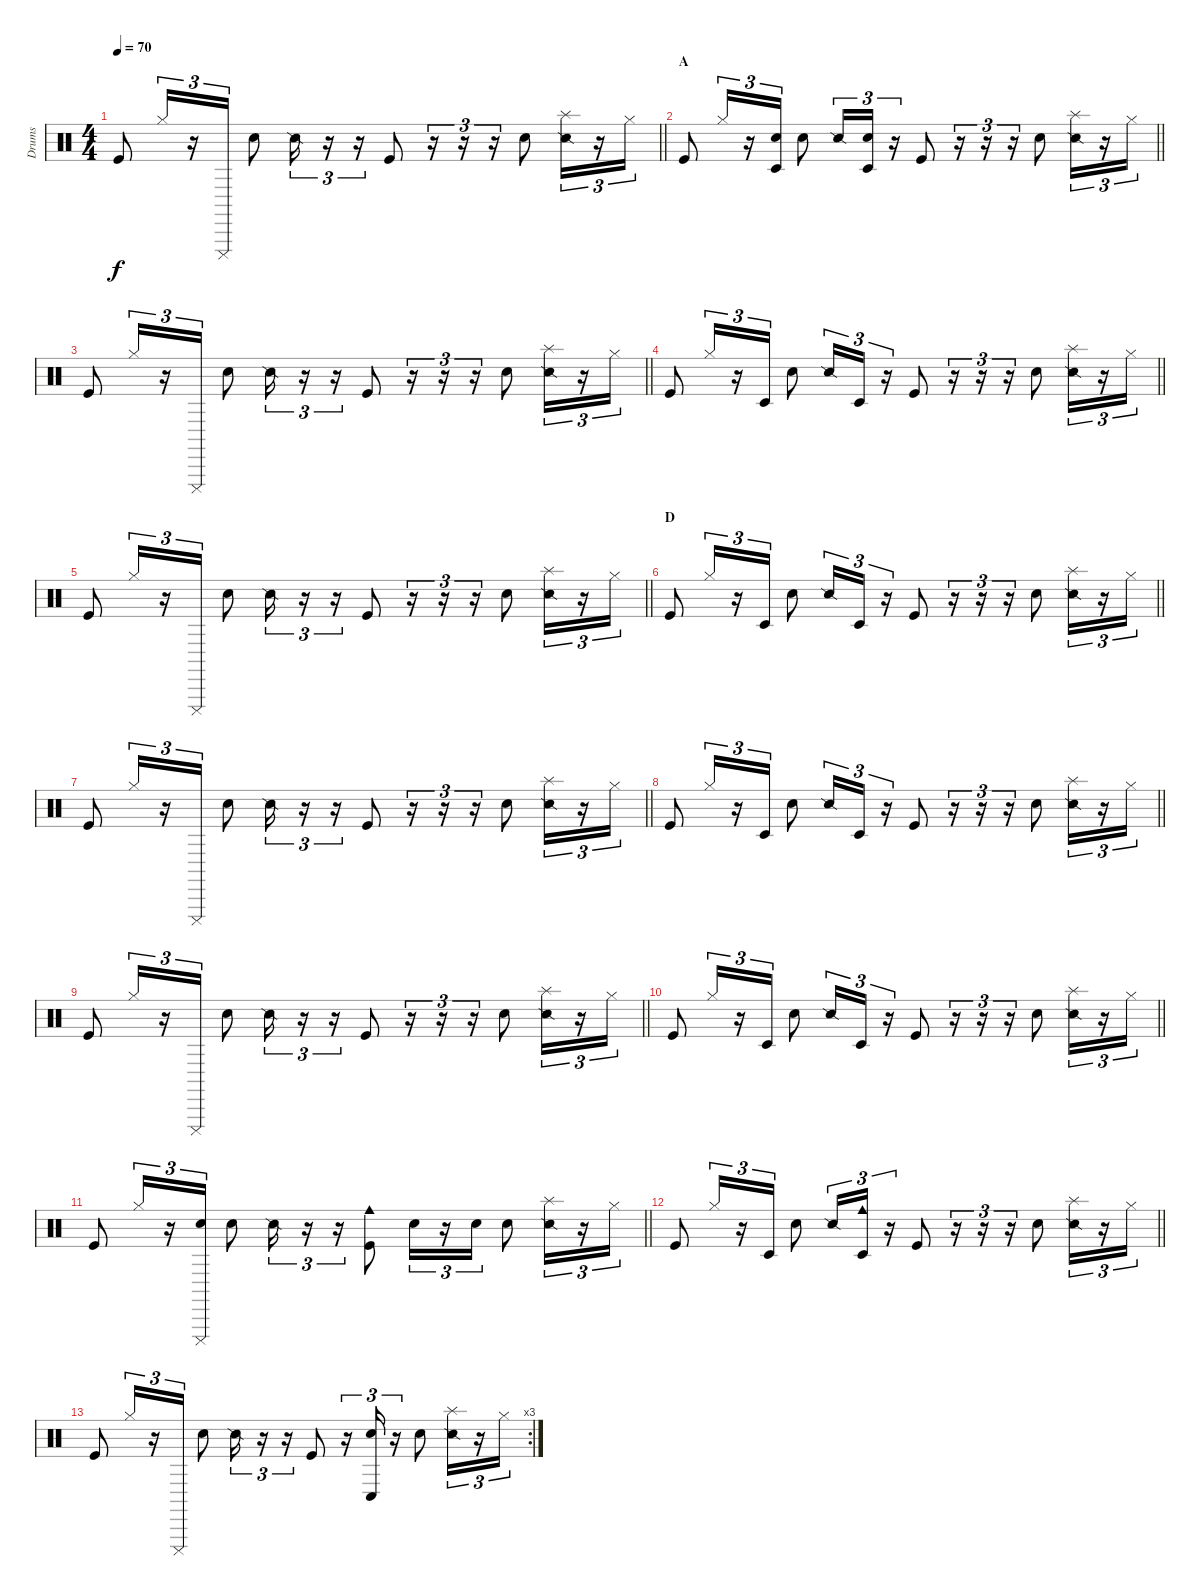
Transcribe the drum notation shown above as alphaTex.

\track ("Drums" "Drums") {instrument percussion}
\staff {score}
\articulation defaults
\ts (4 4)
\tempo 70
\clef neutral
\barLineRight lightlight
\ks c "Kick (hit)".8{dy f} "Hi-Hat (closed)".16{tu (3 2)}
r.16{tu (3 2)} "Cuica (mute)".16{tu (3 2)} "Electric Snare (hit)".8 "Snare (side stick) 2".16{tu (3 2)} r.16{tu (3 2)} r.16{tu (3 2)} "Kick (hit)".8 r.16{tu (3 2)} r.16{tu (3 2)} r.16{tu (3 2)} "Electric Snare (hit)".8 ("Splash (hit)" "Snare (side stick) 2").16{tu (3 2)} r.16{tu (3 2)} "Hi-Hat (closed)".16{tu (3 2)} |
\section ("" "A")
\barLineRight lightlight "Kick (hit)".8 "Hi-Hat (closed)".16{tu (3 2)}
r.16{tu (3 2)} ("Timbale low (hit)" "Snare (hit)").16{tu (3 2)} "Electric Snare (hit)".8 "Snare (side stick) 2".16{tu (3 2)} ("Snare (hit)" "Timbale low (hit)").16{tu (3 2)} r.16{tu (3 2)} "Kick (hit)".8 r.16{tu (3 2)} r.16{tu (3 2)} r.16{tu (3 2)} "Electric Snare (hit)".8 ("Splash (hit)" "Snare (side stick) 2").16{tu (3 2)} r.16{tu (3 2)} "Hi-Hat (closed)".16{tu (3 2)} |
\barLineRight lightlight "Kick (hit)".8 "Hi-Hat (closed)".16{tu (3 2)}
r.16{tu (3 2)} "Cuica (mute)".16{tu (3 2)} "Electric Snare (hit)".8 "Snare (side stick) 2".16{tu (3 2)} r.16{tu (3 2)} r.16{tu (3 2)} "Kick (hit)".8 r.16{tu (3 2)} r.16{tu (3 2)} r.16{tu (3 2)} "Electric Snare (hit)".8 ("Splash (hit)" "Snare (side stick) 2").16{tu (3 2)} r.16{tu (3 2)} "Hi-Hat (closed)".16{tu (3 2)} |
\barLineRight lightlight "Kick (hit)".8 "Hi-Hat (closed)".16{tu (3 2)}
r.16{tu (3 2)} "Timbale low (hit)".16{tu (3 2)} "Electric Snare (hit)".8 "Snare (side stick) 2".16{tu (3 2)} "Timbale low (hit)".16{tu (3 2)} r.16{tu (3 2)} "Kick (hit)".8 r.16{tu (3 2)} r.16{tu (3 2)} r.16{tu (3 2)} "Electric Snare (hit)".8 ("Splash (hit)" "Snare (side stick) 2").16{tu (3 2)} r.16{tu (3 2)} "Hi-Hat (closed)".16{tu (3 2)} |
\barLineRight lightlight "Kick (hit)".8 "Hi-Hat (closed)".16{tu (3 2)}
r.16{tu (3 2)} "Cuica (mute)".16{tu (3 2)} "Electric Snare (hit)".8 "Snare (side stick) 2".16{tu (3 2)} r.16{tu (3 2)} r.16{tu (3 2)} "Kick (hit)".8 r.16{tu (3 2)} r.16{tu (3 2)} r.16{tu (3 2)} "Electric Snare (hit)".8 ("Splash (hit)" "Snare (side stick) 2").16{tu (3 2)} r.16{tu (3 2)} "Hi-Hat (closed)".16{tu (3 2)} |
\section ("" "D")
\barLineRight lightlight "Kick (hit)".8 "Hi-Hat (closed)".16{tu (3 2)}
r.16{tu (3 2)} "Timbale low (hit)".16{tu (3 2)} "Electric Snare (hit)".8 "Snare (side stick) 2".16{tu (3 2)} "Timbale low (hit)".16{tu (3 2)} r.16{tu (3 2)} "Kick (hit)".8 r.16{tu (3 2)} r.16{tu (3 2)} r.16{tu (3 2)} "Electric Snare (hit)".8 ("Splash (hit)" "Snare (side stick) 2").16{tu (3 2)} r.16{tu (3 2)} "Hi-Hat (closed)".16{tu (3 2)} |
\barLineRight lightlight "Kick (hit)".8 "Hi-Hat (closed)".16{tu (3 2)}
r.16{tu (3 2)} "Cuica (mute)".16{tu (3 2)} "Electric Snare (hit)".8 "Snare (side stick) 2".16{tu (3 2)} r.16{tu (3 2)} r.16{tu (3 2)} "Kick (hit)".8 r.16{tu (3 2)} r.16{tu (3 2)} r.16{tu (3 2)} "Electric Snare (hit)".8 ("Splash (hit)" "Snare (side stick) 2").16{tu (3 2)} r.16{tu (3 2)} "Hi-Hat (closed)".16{tu (3 2)} |
\barLineRight lightlight "Kick (hit)".8 "Hi-Hat (closed)".16{tu (3 2)}
r.16{tu (3 2)} "Timbale low (hit)".16{tu (3 2)} "Electric Snare (hit)".8 "Snare (side stick) 2".16{tu (3 2)} "Timbale low (hit)".16{tu (3 2)} r.16{tu (3 2)} "Kick (hit)".8 r.16{tu (3 2)} r.16{tu (3 2)} r.16{tu (3 2)} "Electric Snare (hit)".8 ("Splash (hit)" "Snare (side stick) 2").16{tu (3 2)} r.16{tu (3 2)} "Hi-Hat (closed)".16{tu (3 2)} |
\barLineRight lightlight "Kick (hit)".8 "Hi-Hat (closed)".16{tu (3 2)}
r.16{tu (3 2)} "Cuica (mute)".16{tu (3 2)} "Electric Snare (hit)".8 "Snare (side stick) 2".16{tu (3 2)} r.16{tu (3 2)} r.16{tu (3 2)} "Kick (hit)".8 r.16{tu (3 2)} r.16{tu (3 2)} r.16{tu (3 2)} "Electric Snare (hit)".8 ("Splash (hit)" "Snare (side stick) 2").16{tu (3 2)} r.16{tu (3 2)} "Hi-Hat (closed)".16{tu (3 2)} |
\barLineRight lightlight "Kick (hit)".8 "Hi-Hat (closed)".16{tu (3 2)}
r.16{tu (3 2)} "Timbale low (hit)".16{tu (3 2)} "Electric Snare (hit)".8 "Snare (side stick) 2".16{tu (3 2)} "Timbale low (hit)".16{tu (3 2)} r.16{tu (3 2)} "Kick (hit)".8 r.16{tu (3 2)} r.16{tu (3 2)} r.16{tu (3 2)} "Electric Snare (hit)".8 ("Splash (hit)" "Snare (side stick) 2").16{tu (3 2)} r.16{tu (3 2)} "Hi-Hat (closed)".16{tu (3 2)} |
\barLineRight lightlight "Kick (hit)".8 "Hi-Hat (closed)".16{tu (3 2)}
r.16{tu (3 2)} ("Cuica (mute)" "Snare (hit)").16{tu (3 2)} "Electric Snare (hit)".8 "Snare (side stick) 2".16{tu (3 2)} r.16{tu (3 2)} r.16{tu (3 2)} ("Cowbell medium (hit)" "Kick (hit)").8 "Snare (hit)".16{tu (3 2)} r.16{tu (3 2)} "Snare (hit)".16{tu (3 2)} "Electric Snare (hit)".8 ("Splash (hit)" "Snare (side stick) 2").16{tu (3 2)} r.16{tu (3 2)} "Hi-Hat (closed)".16{tu (3 2)} |
\barLineRight lightlight "Kick (hit)".8 "Hi-Hat (closed)".16{tu (3 2)}
r.16{tu (3 2)} "Timbale low (hit)".16{tu (3 2)} "Electric Snare (hit)".8 "Snare (side stick) 2".16{tu (3 2)} ("Cowbell medium (hit)" "Timbale low (hit)").16{tu (3 2)} r.16{tu (3 2)} "Kick (hit)".8 r.16{tu (3 2)} r.16{tu (3 2)} r.16{tu (3 2)} "Electric Snare (hit)".8 ("Splash (hit)" "Snare (side stick) 2").16{tu (3 2)} r.16{tu (3 2)} "Hi-Hat (closed)".16{tu (3 2)} |
\rc 3 "Kick (hit)".8 "Hi-Hat (closed)".16{tu (3 2)}
r.16{tu (3 2)} "Cuica (mute)".16{tu (3 2)} "Electric Snare (hit)".8 "Snare (side stick) 2".16{tu (3 2)} r.16{tu (3 2)} r.16{tu (3 2)} "Kick (hit)".8 r.16{tu (3 2)} ("Snare (hit)" "Conga low (hit)").16{tu (3 2)} r.16{tu (3 2)} "Electric Snare (hit)".8 ("Splash (hit)" "Snare (side stick) 2").16{tu (3 2)} r.16{tu (3 2)} "Hi-Hat (closed)".16{tu (3 2)}
